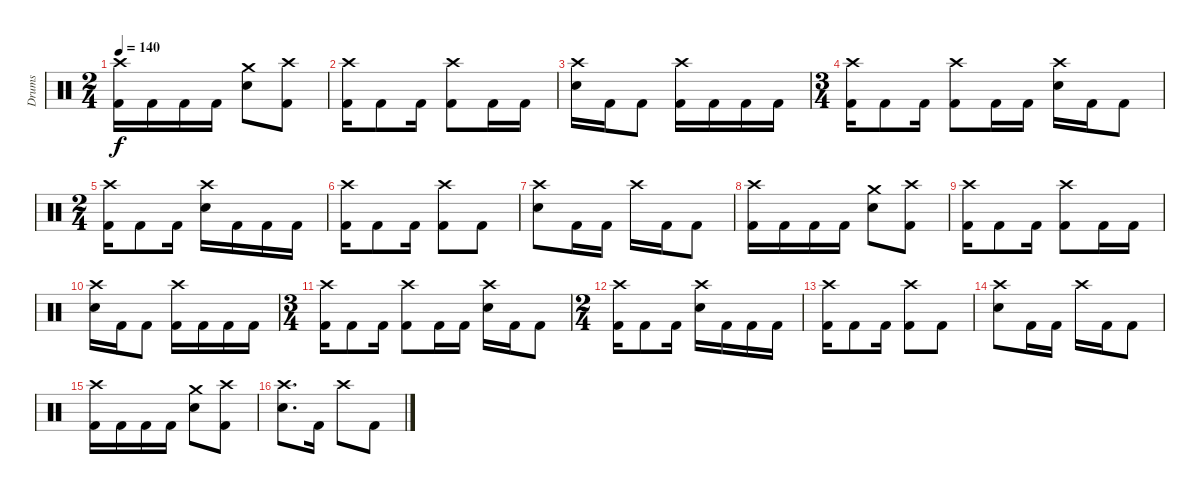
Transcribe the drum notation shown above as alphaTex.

\track ("Drums" "Drums") {instrument percussion}
\staff {score}
\articulation defaults
\ts (2 4)
\tempo 140
\clef neutral
\ks c
("Crash high (hit)" "Kick (hit) 2").16{dy f} "Kick (hit) 2".16 "Kick (hit) 2".16 "Kick (hit) 2".16 ("Crash medium (hit)" "Electric Snare (hit)").8 ("Crash high (hit)" "Kick (hit) 2").8 |
("Crash high (hit)" "Kick (hit) 2").16 "Kick (hit) 2".8 "Kick (hit) 2".16 ("Crash high (hit)" "Kick (hit) 2").8 "Kick (hit) 2".16 "Kick (hit) 2".16 |
("Crash high (hit)" "Electric Snare (hit)").16 "Kick (hit) 2".16 "Kick (hit) 2".8 ("Crash high (hit)" "Kick (hit) 2").16 "Kick (hit) 2".16 "Kick (hit) 2".16 "Kick (hit) 2".16 |
\ts (3 4)
("Crash high (hit)" "Kick (hit) 2").16 "Kick (hit) 2".8 "Kick (hit) 2".16 ("Crash high (hit)" "Kick (hit) 2").8 "Kick (hit) 2".16 "Kick (hit) 2".16 ("Crash high (hit)" "Electric Snare (hit)").16 "Kick (hit) 2".16 "Kick (hit) 2".8 |
\ts (2 4)
("Crash high (hit)" "Kick (hit) 2").16 "Kick (hit) 2".8 "Kick (hit) 2".16 ("Crash high (hit)" "Electric Snare (hit)").16 "Kick (hit) 2".16 "Kick (hit) 2".16 "Kick (hit) 2".16 |
("Crash high (hit)" "Kick (hit) 2").16 "Kick (hit) 2".8 "Kick (hit) 2".16 ("Crash high (hit)" "Kick (hit) 2").8 "Kick (hit) 2".8 |
("Crash high (hit)" "Electric Snare (hit)").8 "Kick (hit) 2".16 "Kick (hit) 2".16 "Crash high (hit)".16 "Kick (hit) 2".16 "Kick (hit) 2".8 |
("Crash high (hit)" "Kick (hit) 2").16 "Kick (hit) 2".16 "Kick (hit) 2".16 "Kick (hit) 2".16 ("Crash medium (hit)" "Electric Snare (hit)").8 ("Crash high (hit)" "Kick (hit) 2").8 |
("Crash high (hit)" "Kick (hit) 2").16 "Kick (hit) 2".8 "Kick (hit) 2".16 ("Crash high (hit)" "Kick (hit) 2").8 "Kick (hit) 2".16 "Kick (hit) 2".16 |
("Crash high (hit)" "Electric Snare (hit)").16 "Kick (hit) 2".16 "Kick (hit) 2".8 ("Crash high (hit)" "Kick (hit) 2").16 "Kick (hit) 2".16 "Kick (hit) 2".16 "Kick (hit) 2".16 |
\ts (3 4)
("Crash high (hit)" "Kick (hit) 2").16 "Kick (hit) 2".8 "Kick (hit) 2".16 ("Crash high (hit)" "Kick (hit) 2").8 "Kick (hit) 2".16 "Kick (hit) 2".16 ("Crash high (hit)" "Electric Snare (hit)").16 "Kick (hit) 2".16 "Kick (hit) 2".8 |
\ts (2 4)
("Crash high (hit)" "Kick (hit) 2").16 "Kick (hit) 2".8 "Kick (hit) 2".16 ("Crash high (hit)" "Electric Snare (hit)").16 "Kick (hit) 2".16 "Kick (hit) 2".16 "Kick (hit) 2".16 |
("Crash high (hit)" "Kick (hit) 2").16 "Kick (hit) 2".8 "Kick (hit) 2".16 ("Crash high (hit)" "Kick (hit) 2").8 "Kick (hit) 2".8 |
("Crash high (hit)" "Electric Snare (hit)").8 "Kick (hit) 2".16 "Kick (hit) 2".16 "Crash high (hit)".16 "Kick (hit) 2".16 "Kick (hit) 2".8 |
("Crash high (hit)" "Kick (hit) 2").16 "Kick (hit) 2".16 "Kick (hit) 2".16 "Kick (hit) 2".16 ("Crash medium (hit)" "Electric Snare (hit)").8 ("Crash high (hit)" "Kick (hit) 2").8 |
("Crash high (hit)" "Electric Snare (hit)").8{d} "Kick (hit) 2".16 "Crash high (hit)".8 "Kick (hit) 2".8
